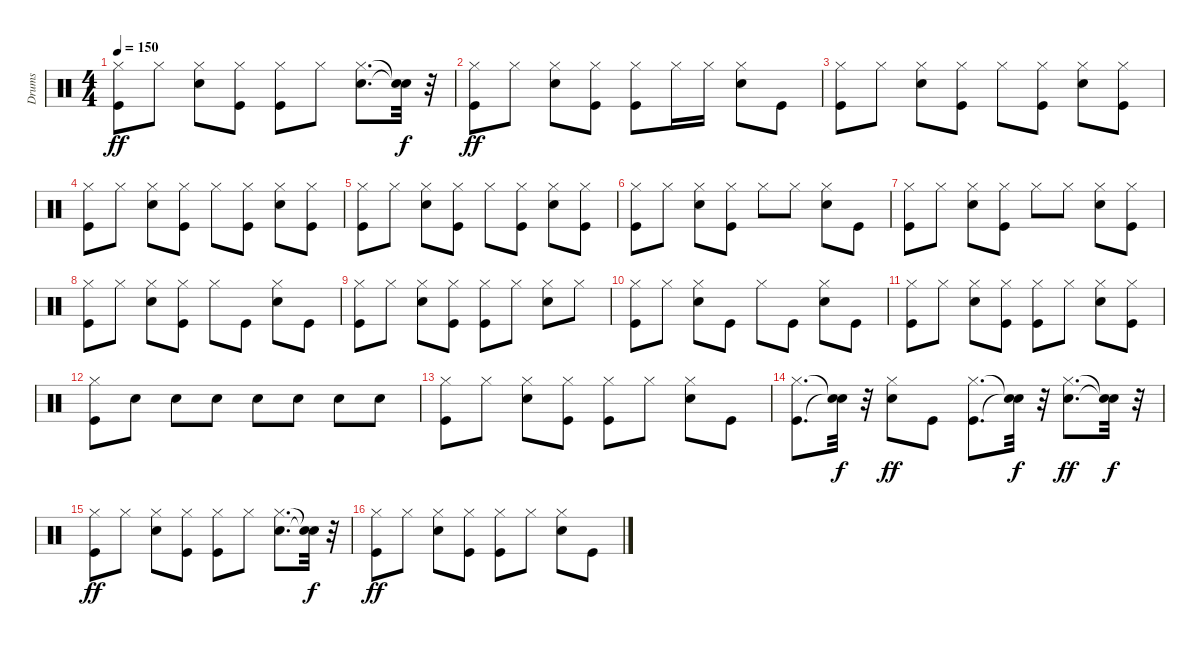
\track ("Drums" "Drums") {instrument percussion}
\staff {score}
\articulation defaults
\ts (4 4)
\tempo 150
\clef neutral
\ks c
("Kick (hit)" "Hi-Hat (closed)").8{dy ff} "Hi-Hat (closed)".8 ("Snare (hit) 2" "Hi-Hat (closed)").8 ("Kick (hit)" "Hi-Hat (closed)").8 ("Kick (hit)" "Hi-Hat (closed)").8 "Hi-Hat (closed)".8 ("Snare (hit) 2" "Hi-Hat (closed)").8{d} ("Snare (hit)"{t} "Snare (hit)"{t}).32{dy f} r.32 |
("Kick (hit)" "Hi-Hat (closed)").8{dy ff} "Hi-Hat (closed)".8 ("Snare (hit) 2" "Hi-Hat (closed)").8 ("Kick (hit)" "Hi-Hat (closed)").8 ("Kick (hit)" "Hi-Hat (closed)").8 "Hi-Hat (closed)".16 "Hi-Hat (closed)".16 ("Snare (hit) 2" "Hi-Hat (closed)").8 "Kick (hit)".8 |
("Kick (hit)" "Hi-Hat (closed)").8 "Hi-Hat (closed)".8 ("Snare (hit) 2" "Hi-Hat (closed)").8 ("Kick (hit)" "Hi-Hat (closed)").8 "Hi-Hat (closed)".8 ("Kick (hit)" "Hi-Hat (closed)").8 ("Snare (hit) 2" "Hi-Hat (closed)").8 ("Kick (hit)" "Hi-Hat (closed)").8 |
("Kick (hit)" "Hi-Hat (closed)").8 "Hi-Hat (closed)".8 ("Snare (hit) 2" "Hi-Hat (closed)").8 ("Kick (hit)" "Hi-Hat (closed)").8 "Hi-Hat (closed)".8 ("Kick (hit)" "Hi-Hat (closed)").8 ("Snare (hit) 2" "Hi-Hat (closed)").8 ("Kick (hit)" "Hi-Hat (closed)").8 |
("Kick (hit)" "Hi-Hat (closed)").8 "Hi-Hat (closed)".8 ("Snare (hit) 2" "Hi-Hat (closed)").8 ("Kick (hit)" "Hi-Hat (closed)").8 "Hi-Hat (closed)".8 ("Kick (hit)" "Hi-Hat (closed)").8 ("Snare (hit) 2" "Hi-Hat (closed)").8 ("Kick (hit)" "Hi-Hat (closed)").8 |
("Kick (hit)" "Hi-Hat (closed)").8 "Hi-Hat (closed)".8 ("Snare (hit) 2" "Hi-Hat (closed)").8 ("Kick (hit)" "Hi-Hat (closed)").8 "Hi-Hat (closed)".8 "Hi-Hat (closed)".8 ("Snare (hit) 2" "Hi-Hat (closed)").8 "Kick (hit)".8 |
("Kick (hit)" "Hi-Hat (closed)").8 "Hi-Hat (closed)".8 ("Snare (hit) 2" "Hi-Hat (closed)").8 ("Kick (hit)" "Hi-Hat (closed)").8 "Hi-Hat (closed)".8 "Hi-Hat (closed)".8 ("Snare (hit) 2" "Hi-Hat (closed)").8 ("Kick (hit)" "Hi-Hat (closed)").8 |
("Kick (hit)" "Hi-Hat (closed)").8 "Hi-Hat (closed)".8 ("Snare (hit) 2" "Hi-Hat (closed)").8 ("Kick (hit)" "Hi-Hat (closed)").8 "Hi-Hat (closed)".8 "Kick (hit)".8 ("Snare (hit) 2" "Hi-Hat (closed)").8 "Kick (hit)".8 |
("Kick (hit)" "Hi-Hat (closed)").8 "Hi-Hat (closed)".8 ("Snare (hit) 2" "Hi-Hat (closed)").8 ("Kick (hit)" "Hi-Hat (closed)").8 ("Kick (hit)" "Hi-Hat (closed)").8 "Hi-Hat (closed)".8 ("Snare (hit) 2" "Hi-Hat (closed)").8 "Hi-Hat (closed)".8 |
("Kick (hit)" "Hi-Hat (closed)").8 "Hi-Hat (closed)".8 ("Snare (hit) 2" "Hi-Hat (closed)").8 "Kick (hit)".8 "Hi-Hat (closed)".8 "Kick (hit)".8 ("Snare (hit) 2" "Hi-Hat (closed)").8 "Kick (hit)".8 |
("Kick (hit)" "Hi-Hat (closed)").8 "Hi-Hat (closed)".8 ("Snare (hit) 2" "Hi-Hat (closed)").8 ("Kick (hit)" "Hi-Hat (closed)").8 ("Kick (hit)" "Hi-Hat (closed)").8 "Hi-Hat (closed)".8 ("Snare (hit) 2" "Hi-Hat (closed)").8 ("Kick (hit)" "Hi-Hat (closed)").8 |
("Kick (hit)" "Hi-Hat (closed)").8 "Snare (hit) 2".8 "Snare (hit) 2".8 "Snare (hit) 2".8 "Snare (hit) 2".8 "Snare (hit) 2".8 "Snare (hit) 2".8 "Snare (hit) 2".8 |
("Kick (hit)" "Hi-Hat (closed)").8 "Hi-Hat (closed)".8 ("Snare (hit) 2" "Hi-Hat (closed)").8 ("Kick (hit)" "Hi-Hat (closed)").8 ("Kick (hit)" "Hi-Hat (closed)").8 "Hi-Hat (closed)".8 ("Snare (hit) 2" "Hi-Hat (closed)").8 "Kick (hit)".8 |
("Kick (hit)" "Hi-Hat (closed)").8{d} ("Snare (hit)"{t} "Snare (hit)"{t}).32{dy f} r.32 ("Snare (hit) 2" "Hi-Hat (closed)").8{dy ff} "Kick (hit)".8 ("Kick (hit)" "Hi-Hat (closed)").8{d} ("Snare (hit)"{t} "Snare (hit)"{t}).32{dy f} r.32 ("Snare (hit) 2" "Hi-Hat (closed)").8{d dy ff} ("Snare (hit)"{t} "Snare (hit)"{t}).32{dy f} r.32 |
("Kick (hit)" "Hi-Hat (closed)").8{dy ff} "Hi-Hat (closed)".8 ("Snare (hit) 2" "Hi-Hat (closed)").8 ("Kick (hit)" "Hi-Hat (closed)").8 ("Kick (hit)" "Hi-Hat (closed)").8 "Hi-Hat (closed)".8 ("Snare (hit) 2" "Hi-Hat (closed)").8{d} ("Snare (hit)"{t} "Snare (hit)"{t}).32{dy f} r.32 |
("Kick (hit)" "Hi-Hat (closed)").8{dy ff} "Hi-Hat (closed)".8 ("Snare (hit) 2" "Hi-Hat (closed)").8 ("Kick (hit)" "Hi-Hat (closed)").8 ("Kick (hit)" "Hi-Hat (closed)").8 "Hi-Hat (closed)".8 ("Snare (hit) 2" "Hi-Hat (closed)").8 "Kick (hit)".8
